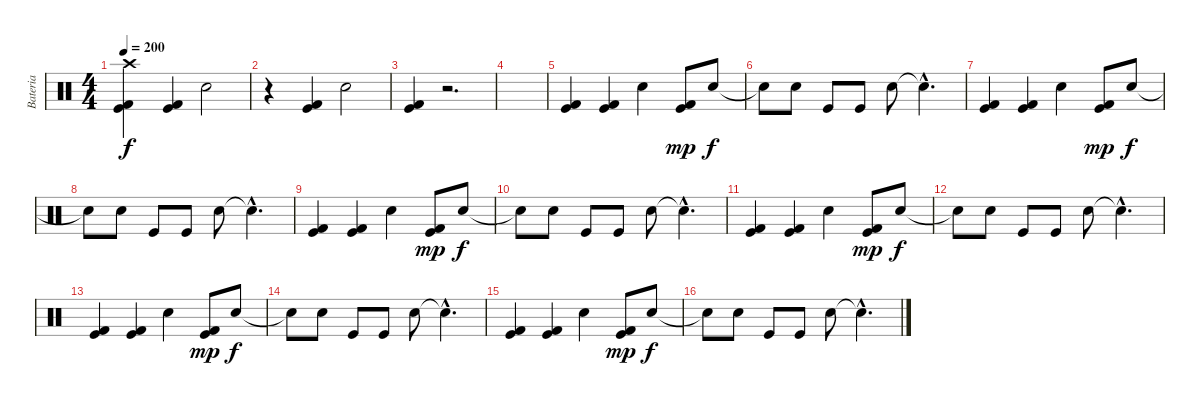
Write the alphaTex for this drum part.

\track ("Bateria" "Bateria") {instrument percussion}
\staff {score}
\articulation defaults
\ts (4 4)
\tempo 200
\clef neutral
\ks c
("Kick (hit) 2" "Kick (hit)" "Crash high (hit)").4{dy f} ("Kick (hit) 2" "Kick (hit)").4 "Electric Snare (hit)".2 |
r.4 ("Kick (hit) 2" "Kick (hit)").4 "Electric Snare (hit)".2 |
("Kick (hit)" "Kick (hit) 2").4 r.2{d} |
|
("Kick (hit) 2" "Kick (hit)").4 ("Kick (hit) 2" "Kick (hit)").4 "Electric Snare (hit)".4 ("Kick (hit)" "Kick (hit) 2").8{dy mp} "Electric Snare (hit)".8{dy f} |
"Snare (hit)"{t}.8 "Electric Snare (hit)".8 "Kick (hit)".8 "Kick (hit)".8 "Electric Snare (hit)".8 "Snare (hit)"{hac t}.4{d} |
("Kick (hit) 2" "Kick (hit)").4 ("Kick (hit) 2" "Kick (hit)").4 "Electric Snare (hit)".4 ("Kick (hit)" "Kick (hit) 2").8{dy mp} "Electric Snare (hit)".8{dy f} |
"Snare (hit)"{t}.8 "Electric Snare (hit)".8 "Kick (hit)".8 "Kick (hit)".8 "Electric Snare (hit)".8 "Snare (hit)"{hac t}.4{d} |
("Kick (hit) 2" "Kick (hit)").4 ("Kick (hit) 2" "Kick (hit)").4 "Electric Snare (hit)".4 ("Kick (hit)" "Kick (hit) 2").8{dy mp} "Electric Snare (hit)".8{dy f} |
"Snare (hit)"{t}.8 "Electric Snare (hit)".8 "Kick (hit)".8 "Kick (hit)".8 "Electric Snare (hit)".8 "Snare (hit)"{hac t}.4{d} |
("Kick (hit) 2" "Kick (hit)").4 ("Kick (hit) 2" "Kick (hit)").4 "Electric Snare (hit)".4 ("Kick (hit)" "Kick (hit) 2").8{dy mp} "Electric Snare (hit)".8{dy f} |
"Snare (hit)"{t}.8 "Electric Snare (hit)".8 "Kick (hit)".8 "Kick (hit)".8 "Electric Snare (hit)".8 "Snare (hit)"{hac t}.4{d} |
("Kick (hit) 2" "Kick (hit)").4 ("Kick (hit) 2" "Kick (hit)").4 "Electric Snare (hit)".4 ("Kick (hit)" "Kick (hit) 2").8{dy mp} "Electric Snare (hit)".8{dy f} |
"Snare (hit)"{t}.8 "Electric Snare (hit)".8 "Kick (hit)".8 "Kick (hit)".8 "Electric Snare (hit)".8 "Snare (hit)"{hac t}.4{d} |
("Kick (hit) 2" "Kick (hit)").4 ("Kick (hit) 2" "Kick (hit)").4 "Electric Snare (hit)".4 ("Kick (hit)" "Kick (hit) 2").8{dy mp} "Electric Snare (hit)".8{dy f} |
"Snare (hit)"{t}.8 "Electric Snare (hit)".8 "Kick (hit)".8 "Kick (hit)".8 "Electric Snare (hit)".8 "Snare (hit)"{hac t}.4{d}
